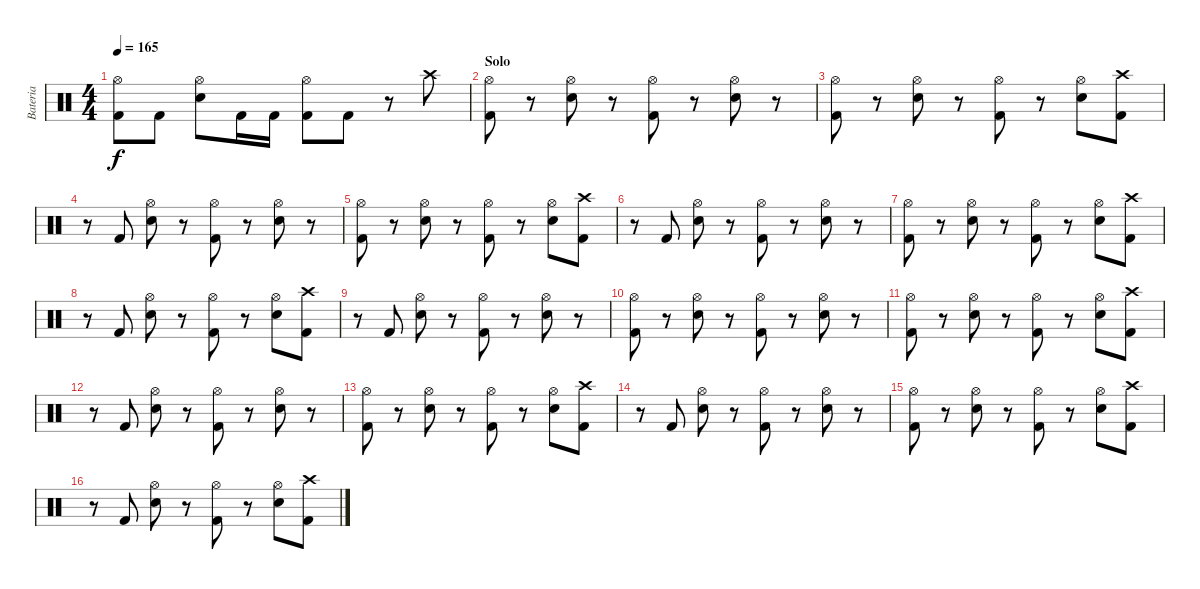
\track ("Bateria" "Bateria") {instrument percussion}
\staff {score}
\articulation defaults
\ts (4 4)
\tempo 165
\clef neutral
\ks c
("Hi-Hat (open)" "Kick (hit) 2").8{dy f} "Kick (hit) 2".8 ("Hi-Hat (open)" "Snare (hit) 2").8 "Kick (hit) 2".16 "Kick (hit) 2".16 ("Hi-Hat (open)" "Kick (hit) 2").8 "Kick (hit) 2".8 r.8 "Crash high (hit)".8 |
\section ("" "Solo")
("Hi-Hat (open)" "Kick (hit) 2").8 r.8 ("Hi-Hat (open)" "Snare (hit) 2").8 r.8 ("Hi-Hat (open)" "Kick (hit) 2").8 r.8 ("Hi-Hat (open)" "Snare (hit) 2").8 r.8 |
("Hi-Hat (open)" "Kick (hit) 2").8 r.8 ("Hi-Hat (open)" "Snare (hit) 2").8 r.8 ("Hi-Hat (open)" "Kick (hit) 2").8 r.8 ("Hi-Hat (open)" "Snare (hit) 2").8 ("Crash high (hit)" "Kick (hit) 2").8 |
r.8 "Kick (hit) 2".8 ("Hi-Hat (open)" "Snare (hit) 2").8 r.8 ("Hi-Hat (open)" "Kick (hit) 2").8 r.8 ("Hi-Hat (open)" "Snare (hit) 2").8 r.8 |
("Hi-Hat (open)" "Kick (hit) 2").8 r.8 ("Hi-Hat (open)" "Snare (hit) 2").8 r.8 ("Hi-Hat (open)" "Kick (hit) 2").8 r.8 ("Hi-Hat (open)" "Snare (hit) 2").8 ("Crash high (hit)" "Kick (hit) 2").8 |
r.8 "Kick (hit) 2".8 ("Hi-Hat (open)" "Snare (hit) 2").8 r.8 ("Hi-Hat (open)" "Kick (hit) 2").8 r.8 ("Hi-Hat (open)" "Snare (hit) 2").8 r.8 |
("Hi-Hat (open)" "Kick (hit) 2").8 r.8 ("Hi-Hat (open)" "Snare (hit) 2").8 r.8 ("Hi-Hat (open)" "Kick (hit) 2").8 r.8 ("Hi-Hat (open)" "Snare (hit) 2").8 ("Crash high (hit)" "Kick (hit) 2").8 |
r.8 "Kick (hit) 2".8 ("Hi-Hat (open)" "Snare (hit) 2").8 r.8 ("Hi-Hat (open)" "Kick (hit) 2").8 r.8 ("Hi-Hat (open)" "Snare (hit) 2").8 ("Crash high (hit)" "Kick (hit) 2").8 |
r.8 "Kick (hit) 2".8 ("Hi-Hat (open)" "Snare (hit) 2").8 r.8 ("Hi-Hat (open)" "Kick (hit) 2").8 r.8 ("Hi-Hat (open)" "Snare (hit) 2").8 r.8 |
("Hi-Hat (open)" "Kick (hit) 2").8 r.8 ("Hi-Hat (open)" "Snare (hit) 2").8 r.8 ("Hi-Hat (open)" "Kick (hit) 2").8 r.8 ("Hi-Hat (open)" "Snare (hit) 2").8 r.8 |
("Hi-Hat (open)" "Kick (hit) 2").8 r.8 ("Hi-Hat (open)" "Snare (hit) 2").8 r.8 ("Hi-Hat (open)" "Kick (hit) 2").8 r.8 ("Hi-Hat (open)" "Snare (hit) 2").8 ("Crash high (hit)" "Kick (hit) 2").8 |
r.8 "Kick (hit) 2".8 ("Hi-Hat (open)" "Snare (hit) 2").8 r.8 ("Hi-Hat (open)" "Kick (hit) 2").8 r.8 ("Hi-Hat (open)" "Snare (hit) 2").8 r.8 |
("Hi-Hat (open)" "Kick (hit) 2").8 r.8 ("Hi-Hat (open)" "Snare (hit) 2").8 r.8 ("Hi-Hat (open)" "Kick (hit) 2").8 r.8 ("Hi-Hat (open)" "Snare (hit) 2").8 ("Crash high (hit)" "Kick (hit) 2").8 |
r.8 "Kick (hit) 2".8 ("Hi-Hat (open)" "Snare (hit) 2").8 r.8 ("Hi-Hat (open)" "Kick (hit) 2").8 r.8 ("Hi-Hat (open)" "Snare (hit) 2").8 r.8 |
("Hi-Hat (open)" "Kick (hit) 2").8 r.8 ("Hi-Hat (open)" "Snare (hit) 2").8 r.8 ("Hi-Hat (open)" "Kick (hit) 2").8 r.8 ("Hi-Hat (open)" "Snare (hit) 2").8 ("Crash high (hit)" "Kick (hit) 2").8 |
r.8 "Kick (hit) 2".8 ("Hi-Hat (open)" "Snare (hit) 2").8 r.8 ("Hi-Hat (open)" "Kick (hit) 2").8 r.8 ("Hi-Hat (open)" "Snare (hit) 2").8 ("Crash high (hit)" "Kick (hit) 2").8
